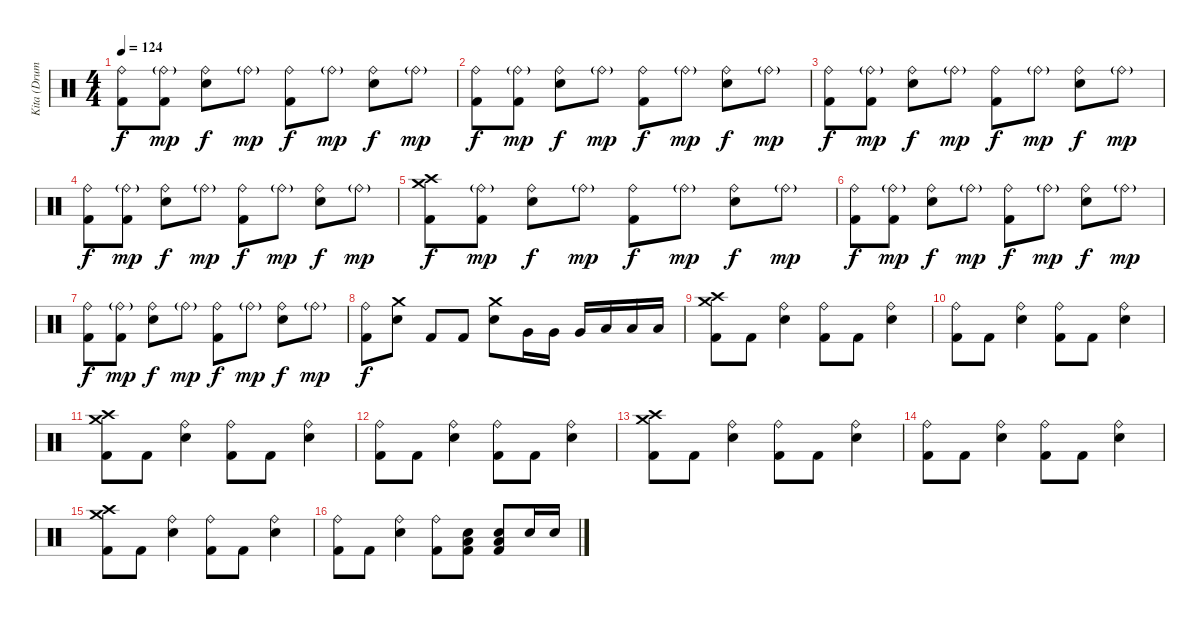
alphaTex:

\track ("Kita (Drums)" "Kita (Drum") {instrument percussion}
\staff {score}
\articulation defaults
\ts (4 4)
\tempo 124
\clef neutral
\ks c
("Ride (bell)" "Kick (hit) 2").8{dy f} ("Ride (bell)"{g} "Kick (hit) 2").8{dy mp} ("Ride (bell)" "Electric Snare (hit)").8{dy f} "Ride (bell)"{g}.8{dy mp} ("Ride (bell)" "Kick (hit) 2").8{dy f} "Ride (bell)"{g}.8{dy mp} ("Ride (bell)" "Electric Snare (hit)").8{dy f} "Ride (bell)"{g}.8{dy mp} |
("Ride (bell)" "Kick (hit) 2").8{dy f} ("Ride (bell)"{g} "Kick (hit) 2").8{dy mp} ("Ride (bell)" "Electric Snare (hit)").8{dy f} "Ride (bell)"{g}.8{dy mp} ("Ride (bell)" "Kick (hit) 2").8{dy f} "Ride (bell)"{g}.8{dy mp} ("Ride (bell)" "Electric Snare (hit)").8{dy f} "Ride (bell)"{g}.8{dy mp} |
("Ride (bell)" "Kick (hit) 2").8{dy f} ("Ride (bell)"{g} "Kick (hit) 2").8{dy mp} ("Ride (bell)" "Electric Snare (hit)").8{dy f} "Ride (bell)"{g}.8{dy mp} ("Ride (bell)" "Kick (hit) 2").8{dy f} "Ride (bell)"{g}.8{dy mp} ("Ride (bell)" "Electric Snare (hit)").8{dy f} "Ride (bell)"{g}.8{dy mp} |
("Ride (bell)" "Kick (hit) 2").8{dy f} ("Ride (bell)"{g} "Kick (hit) 2").8{dy mp} ("Ride (bell)" "Electric Snare (hit)").8{dy f} "Ride (bell)"{g}.8{dy mp} ("Ride (bell)" "Kick (hit) 2").8{dy f} "Ride (bell)"{g}.8{dy mp} ("Ride (bell)" "Electric Snare (hit)").8{dy f} "Ride (bell)"{g}.8{dy mp} |
("Crash medium (hit)" "Crash high (hit)" "Kick (hit) 2").8{dy f} ("Ride (bell)"{g} "Kick (hit) 2").8{dy mp} ("Ride (bell)" "Electric Snare (hit)").8{dy f} "Ride (bell)"{g}.8{dy mp} ("Ride (bell)" "Kick (hit) 2").8{dy f} "Ride (bell)"{g}.8{dy mp} ("Ride (bell)" "Electric Snare (hit)").8{dy f} "Ride (bell)"{g}.8{dy mp} |
("Ride (bell)" "Kick (hit) 2").8{dy f} ("Ride (bell)"{g} "Kick (hit) 2").8{dy mp} ("Ride (bell)" "Electric Snare (hit)").8{dy f} "Ride (bell)"{g}.8{dy mp} ("Ride (bell)" "Kick (hit) 2").8{dy f} "Ride (bell)"{g}.8{dy mp} ("Ride (bell)" "Electric Snare (hit)").8{dy f} "Ride (bell)"{g}.8{dy mp} |
("Ride (bell)" "Kick (hit) 2").8{dy f} ("Ride (bell)"{g} "Kick (hit) 2").8{dy mp} ("Ride (bell)" "Electric Snare (hit)").8{dy f} "Ride (bell)"{g}.8{dy mp} ("Ride (bell)" "Kick (hit) 2").8{dy f} "Ride (bell)"{g}.8{dy mp} ("Ride (bell)" "Electric Snare (hit)").8{dy f} "Ride (bell)"{g}.8{dy mp} |
("Ride (bell)" "Kick (hit) 2").8{dy f} ("Crash medium (hit)" "Electric Snare (hit)").8 "Kick (hit) 2".8 "Kick (hit) 2".8 ("Crash medium (hit)" "Electric Snare (hit)").8 "Very Low Tom (hit)".16 "Very Low Tom (hit)".16 "Very Low Tom (hit)".16 "Low Floor Tom (hit)".16 "Low Floor Tom (hit)".16 "Low Floor Tom (hit)".16 |
("Crash medium (hit)" "Crash high (hit)" "Kick (hit) 2").8 "Kick (hit) 2".8 ("Ride (bell)" "Electric Snare (hit)").4 ("Ride (bell)" "Kick (hit) 2").8 "Kick (hit) 2".8 ("Ride (bell)" "Electric Snare (hit)").4 |
("Ride (bell)" "Kick (hit) 2").8 "Kick (hit) 2".8 ("Ride (bell)" "Electric Snare (hit)").4 ("Ride (bell)" "Kick (hit) 2").8 "Kick (hit) 2".8 ("Ride (bell)" "Electric Snare (hit)").4 |
("Crash medium (hit)" "Crash high (hit)" "Kick (hit) 2").8 "Kick (hit) 2".8 ("Ride (bell)" "Electric Snare (hit)").4 ("Ride (bell)" "Kick (hit) 2").8 "Kick (hit) 2".8 ("Ride (bell)" "Electric Snare (hit)").4 |
("Ride (bell)" "Kick (hit) 2").8 "Kick (hit) 2".8 ("Ride (bell)" "Electric Snare (hit)").4 ("Ride (bell)" "Kick (hit) 2").8 "Kick (hit) 2".8 ("Ride (bell)" "Electric Snare (hit)").4 |
("Crash medium (hit)" "Crash high (hit)" "Kick (hit) 2").8 "Kick (hit) 2".8 ("Ride (bell)" "Electric Snare (hit)").4 ("Ride (bell)" "Kick (hit) 2").8 "Kick (hit) 2".8 ("Ride (bell)" "Electric Snare (hit)").4 |
("Ride (bell)" "Kick (hit) 2").8 "Kick (hit) 2".8 ("Ride (bell)" "Electric Snare (hit)").4 ("Ride (bell)" "Kick (hit) 2").8 "Kick (hit) 2".8 ("Ride (bell)" "Electric Snare (hit)").4 |
("Crash medium (hit)" "Crash high (hit)" "Kick (hit) 2").8 "Kick (hit) 2".8 ("Ride (bell)" "Electric Snare (hit)").4 ("Ride (bell)" "Kick (hit) 2").8 "Kick (hit) 2".8 ("Ride (bell)" "Electric Snare (hit)").4 |
("Ride (bell)" "Kick (hit) 2").8 "Kick (hit) 2".8 ("Ride (bell)" "Electric Snare (hit)").4 ("Ride (bell)" "Kick (hit) 2").8 ("Low Floor Tom (hit)" "Electric Snare (hit)" "Kick (hit) 2").8 ("Low Floor Tom (hit)" "Electric Snare (hit)" "Kick (hit) 2").8 "Electric Snare (hit)".16 "Electric Snare (hit)".16
